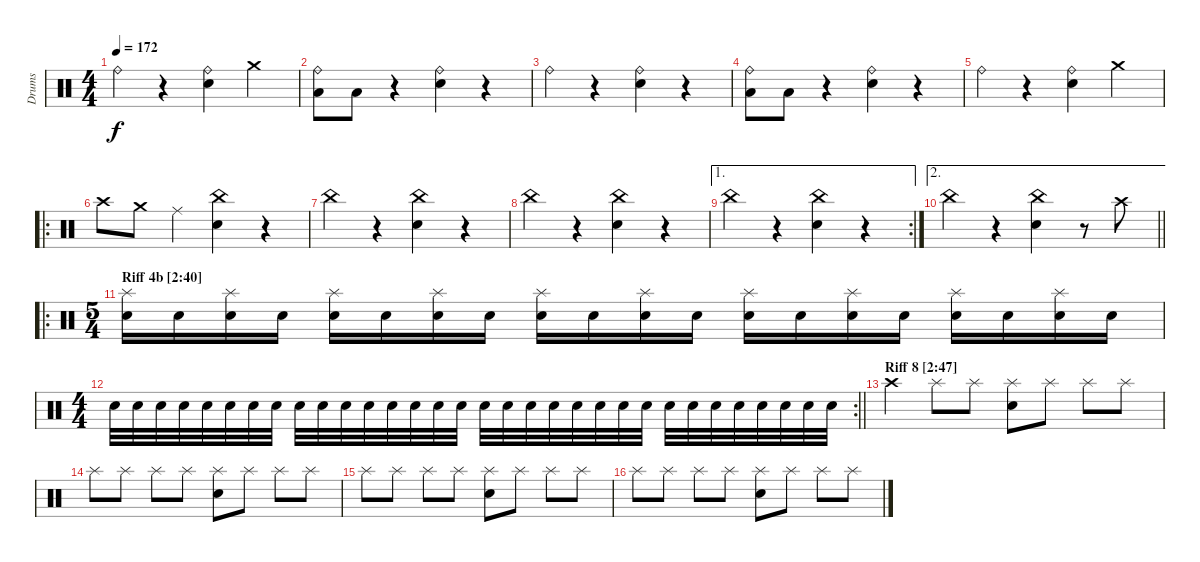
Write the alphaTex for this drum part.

\track ("Drums" "Drums") {instrument percussion}
\staff {score}
\articulation defaults
\ts (4 4)
\tempo 172
\clef neutral
\ks c "Ride (bell)".4{dy f}
r.4 ("Ride (bell)" "Electric Snare (hit)").4 "Crash medium (hit)".4 |
("Ride (bell)" "Low Floor Tom (hit)").8 "Low Floor Tom (hit)".8 r.4 ("Ride (bell)" "Electric Snare (hit)").4 r.4 |
"Ride (bell)".4 r.4 ("Ride (bell)" "Electric Snare (hit)").4 r.4 |
("Ride (bell)" "Low Floor Tom (hit)").8 "Low Floor Tom (hit)".8 r.4 ("Ride (bell)" "Electric Snare (hit)").4 r.4 |
"Ride (bell)".4 r.4 ("Ride (bell)" "Electric Snare (hit)").4 "Crash medium (hit)".4 |
\ro "Crash high (hit)".8 "Crash medium (hit)".8 "Ride (middle)".4
("China (hit)" "Electric Snare (hit)").4 r.4 |
"China (hit)".4 r.4 ("China (hit)" "Electric Snare (hit)").4 r.4 |
"China (hit)".4 r.4 ("China (hit)" "Electric Snare (hit)").4 r.4 |
\ae 1
\rc 2 "China (hit)".4
r.4 ("China (hit)" "Electric Snare (hit)").4 r.4 |
\ae 2
\barLineRight lightlight "China (hit)".4
r.4 ("China (hit)" "Electric Snare (hit)").4 r.8 "Crash high (hit)".8 |
\ro
\ts (5 4)
\section ("" "Riff 4b [2:40]")
("Splash (hit)" "Electric Snare (hit)").16 "Electric Snare (hit)".16 ("Splash (hit)" "Electric Snare (hit)").16 "Electric Snare (hit)".16 ("Splash (hit)" "Electric Snare (hit)").16 "Electric Snare (hit)".16 ("Splash (hit)" "Electric Snare (hit)").16 "Electric Snare (hit)".16 ("Splash (hit)" "Electric Snare (hit)").16 "Electric Snare (hit)".16 ("Splash (hit)" "Electric Snare (hit)").16 "Electric Snare (hit)".16 ("Splash (hit)" "Electric Snare (hit)").16 "Electric Snare (hit)".16 ("Splash (hit)" "Electric Snare (hit)").16 "Electric Snare (hit)".16 ("Splash (hit)" "Electric Snare (hit)").16 "Electric Snare (hit)".16 ("Splash (hit)" "Electric Snare (hit)").16 "Electric Snare (hit)".16 |
\rc 2
\ts (4 4)
\barLineRight lightlight "Electric Snare (hit)".32 "Electric Snare (hit)".32 "Electric Snare (hit)".32 "Electric Snare (hit)".32 "Electric Snare (hit)".32 "Electric Snare (hit)".32 "Electric Snare (hit)".32 "Electric Snare (hit)".32 "Electric Snare (hit)".32 "Electric Snare (hit)".32 "Electric Snare (hit)".32 "Electric Snare (hit)".32 "Electric Snare (hit)".32 "Electric Snare (hit)".32 "Electric Snare (hit)".32 "Electric Snare (hit)".32 "Electric Snare (hit)".32 "Electric Snare (hit)".32 "Electric Snare (hit)".32 "Electric Snare (hit)".32 "Electric Snare (hit)".32 "Electric Snare (hit)".32 "Electric Snare (hit)".32 "Electric Snare (hit)".32 "Electric Snare (hit)".32 "Electric Snare (hit)".32 "Electric Snare (hit)".32 "Electric Snare (hit)".32 "Electric Snare (hit)".32 "Electric Snare (hit)".32 "Electric Snare (hit)".32 "Electric Snare (hit)".32
|
\section ("" "Riff 8 [2:47]")
"Crash high (hit)".4 "Splash (hit)".8 "Splash (hit)".8 ("Splash (hit)" "Electric Snare (hit)").8 "Splash (hit)".8 "Splash (hit)".8 "Splash (hit)".8 |
"Splash (hit)".8 "Splash (hit)".8 "Splash (hit)".8 "Splash (hit)".8 ("Splash (hit)" "Electric Snare (hit)").8 "Splash (hit)".8 "Splash (hit)".8 "Splash (hit)".8 |
"Splash (hit)".8 "Splash (hit)".8 "Splash (hit)".8 "Splash (hit)".8 ("Splash (hit)" "Electric Snare (hit)").8 "Splash (hit)".8 "Splash (hit)".8 "Splash (hit)".8 |
"Splash (hit)".8 "Splash (hit)".8 "Splash (hit)".8 "Splash (hit)".8 ("Splash (hit)" "Electric Snare (hit)").8 "Splash (hit)".8 "Splash (hit)".8 "Splash (hit)".8
